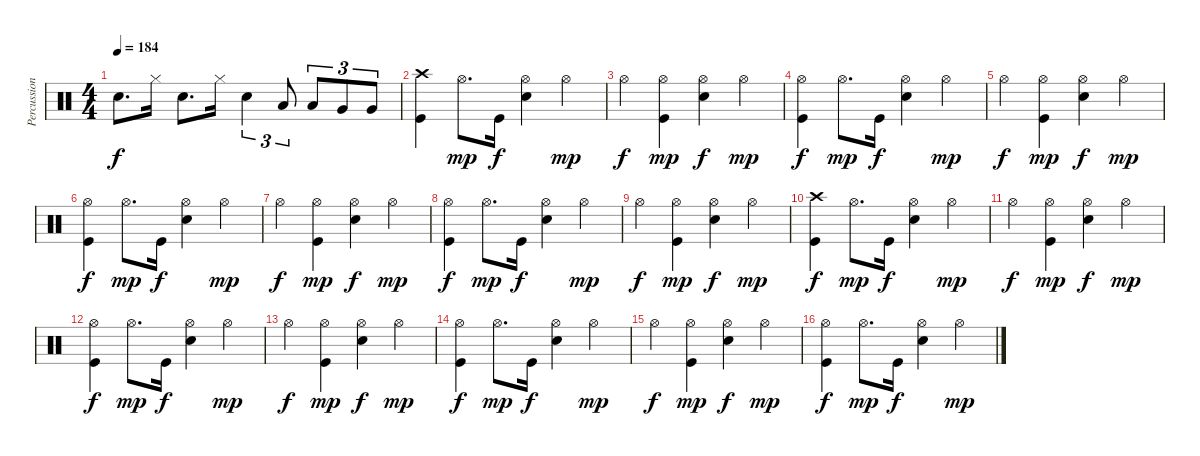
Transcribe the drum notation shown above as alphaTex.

\track ("Percussion" "Percussion") {instrument percussion}
\staff {score}
\articulation defaults
\ts (4 4)
\tempo 184
\clef neutral
\ks c "Electric Snare (hit)".8{d dy f} "Hi-Hat (closed)".16 "Electric Snare (hit)".8{d} "Hi-Hat (closed)".16 "Electric Snare (hit)".4{tu (3 2)} "Low Tom (hit)".8{tu (3 2)} "Low Tom (hit)".8{tu (3 2)} "Very Low Tom (hit)".8{tu (3 2)} "Very Low Tom (hit)".8{tu (3 2)}
|
("Crash high (hit)" "Kick (hit)").4 "Hi-Hat (open)".8{d dy mp} "Kick (hit)".16{dy f} ("Hi-Hat (open)" "Electric Snare (hit)").4 "Hi-Hat (open)".4{dy mp} |
"Hi-Hat (open)".4{dy f} ("Hi-Hat (open)" "Kick (hit)").4{dy mp} ("Hi-Hat (open)" "Electric Snare (hit)").4{dy f} "Hi-Hat (open)".4{dy mp} |
("Hi-Hat (open)" "Kick (hit)").4{dy f} "Hi-Hat (open)".8{d dy mp} "Kick (hit)".16{dy f} ("Hi-Hat (open)" "Electric Snare (hit)").4 "Hi-Hat (open)".4{dy mp} |
"Hi-Hat (open)".4{dy f} ("Hi-Hat (open)" "Kick (hit)").4{dy mp} ("Hi-Hat (open)" "Electric Snare (hit)").4{dy f} "Hi-Hat (open)".4{dy mp} |
("Hi-Hat (open)" "Kick (hit)").4{dy f} "Hi-Hat (open)".8{d dy mp} "Kick (hit)".16{dy f} ("Hi-Hat (open)" "Electric Snare (hit)").4 "Hi-Hat (open)".4{dy mp} |
"Hi-Hat (open)".4{dy f} ("Hi-Hat (open)" "Kick (hit)").4{dy mp} ("Hi-Hat (open)" "Electric Snare (hit)").4{dy f} "Hi-Hat (open)".4{dy mp} |
("Hi-Hat (open)" "Kick (hit)").4{dy f} "Hi-Hat (open)".8{d dy mp} "Kick (hit)".16{dy f} ("Hi-Hat (open)" "Electric Snare (hit)").4 "Hi-Hat (open)".4{dy mp} |
"Hi-Hat (open)".4{dy f} ("Hi-Hat (open)" "Kick (hit)").4{dy mp} ("Hi-Hat (open)" "Electric Snare (hit)").4{dy f} "Hi-Hat (open)".4{dy mp} |
("Crash high (hit)" "Kick (hit)").4{dy f} "Hi-Hat (open)".8{d dy mp} "Kick (hit)".16{dy f} ("Hi-Hat (open)" "Electric Snare (hit)").4 "Hi-Hat (open)".4{dy mp} |
"Hi-Hat (open)".4{dy f} ("Hi-Hat (open)" "Kick (hit)").4{dy mp} ("Hi-Hat (open)" "Electric Snare (hit)").4{dy f} "Hi-Hat (open)".4{dy mp} |
("Hi-Hat (open)" "Kick (hit)").4{dy f} "Hi-Hat (open)".8{d dy mp} "Kick (hit)".16{dy f} ("Hi-Hat (open)" "Electric Snare (hit)").4 "Hi-Hat (open)".4{dy mp} |
"Hi-Hat (open)".4{dy f} ("Hi-Hat (open)" "Kick (hit)").4{dy mp} ("Hi-Hat (open)" "Electric Snare (hit)").4{dy f} "Hi-Hat (open)".4{dy mp} |
("Hi-Hat (open)" "Kick (hit)").4{dy f} "Hi-Hat (open)".8{d dy mp} "Kick (hit)".16{dy f} ("Hi-Hat (open)" "Electric Snare (hit)").4 "Hi-Hat (open)".4{dy mp} |
"Hi-Hat (open)".4{dy f} ("Hi-Hat (open)" "Kick (hit)").4{dy mp} ("Hi-Hat (open)" "Electric Snare (hit)").4{dy f} "Hi-Hat (open)".4{dy mp} |
("Hi-Hat (open)" "Kick (hit)").4{dy f} "Hi-Hat (open)".8{d dy mp} "Kick (hit)".16{dy f} ("Hi-Hat (open)" "Electric Snare (hit)").4 "Hi-Hat (open)".4{dy mp}
